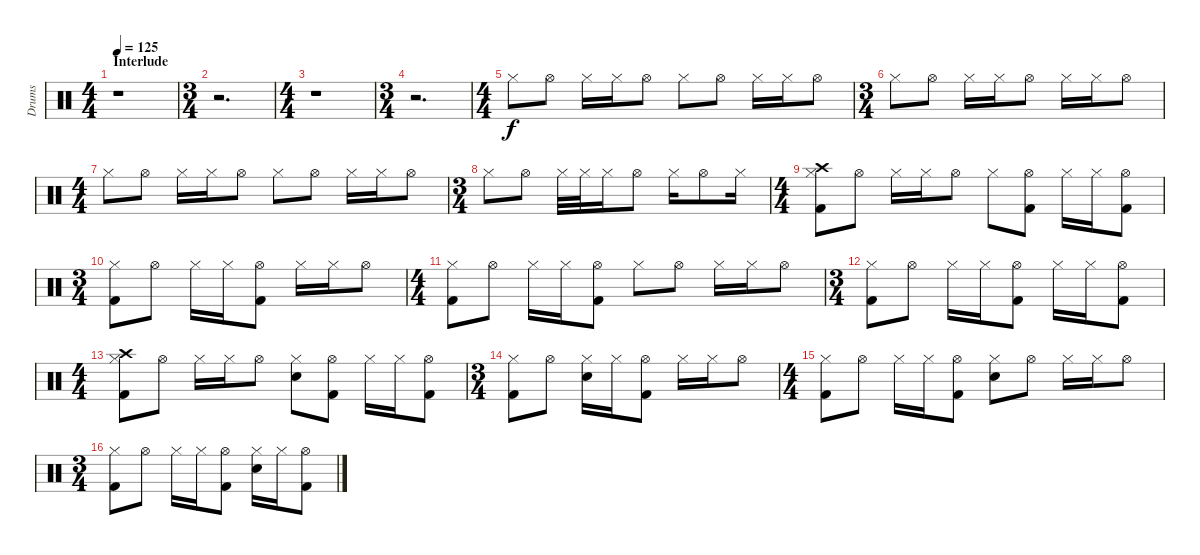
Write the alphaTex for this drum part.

\track ("Drums" "Drums") {instrument percussion}
\staff {score}
\articulation defaults
\ts (4 4)
\section ("" "Interlude")
\tempo 125
\clef neutral
\ks c
r.1{dy f} |
\ts (3 4)
r.2{d} |
\ts (4 4)
r.1 |
\ts (3 4)
r.2{d} |
\ts (4 4)
"Hi-Hat (closed)".8 "Hi-Hat (open)".8 "Hi-Hat (closed)".16 "Hi-Hat (closed)".16 "Hi-Hat (open)".8 "Hi-Hat (closed)".8 "Hi-Hat (open)".8 "Hi-Hat (closed)".16 "Hi-Hat (closed)".16 "Hi-Hat (open)".8 |
\ts (3 4)
"Hi-Hat (closed)".8 "Hi-Hat (open)".8 "Hi-Hat (closed)".16 "Hi-Hat (closed)".16 "Hi-Hat (open)".8 "Hi-Hat (closed)".16 "Hi-Hat (closed)".16 "Hi-Hat (open)".8 |
\ts (4 4)
"Hi-Hat (closed)".8 "Hi-Hat (open)".8 "Hi-Hat (closed)".16 "Hi-Hat (closed)".16 "Hi-Hat (open)".8 "Hi-Hat (closed)".8 "Hi-Hat (open)".8 "Hi-Hat (closed)".16 "Hi-Hat (closed)".16 "Hi-Hat (open)".8 |
\ts (3 4)
"Hi-Hat (closed)".8 "Hi-Hat (open)".8 "Hi-Hat (closed)".32 "Hi-Hat (closed)".32 "Hi-Hat (closed)".16 "Hi-Hat (open)".8 "Hi-Hat (closed)".16 "Hi-Hat (open)".8 "Hi-Hat (closed)".16 |
\ts (4 4)
("Kick (hit) 2" "Crash high (hit)" "Hi-Hat (closed)").8 "Hi-Hat (open)".8 "Hi-Hat (closed)".16 "Hi-Hat (closed)".16 "Hi-Hat (open)".8 "Hi-Hat (closed)".8 ("Kick (hit) 2" "Hi-Hat (open)").8 "Hi-Hat (closed)".16 "Hi-Hat (closed)".16 ("Kick (hit) 2" "Hi-Hat (open)").8 |
\ts (3 4)
("Kick (hit) 2" "Hi-Hat (closed)").8 "Hi-Hat (open)".8 "Hi-Hat (closed)".16 "Hi-Hat (closed)".16 ("Kick (hit) 2" "Hi-Hat (open)").8 "Hi-Hat (closed)".16 "Hi-Hat (closed)".16 "Hi-Hat (open)".8 |
\ts (4 4)
("Kick (hit) 2" "Hi-Hat (closed)").8 "Hi-Hat (open)".8 "Hi-Hat (closed)".16 "Hi-Hat (closed)".16 ("Kick (hit) 2" "Hi-Hat (open)").8 "Hi-Hat (closed)".8 "Hi-Hat (open)".8 "Hi-Hat (closed)".16 "Hi-Hat (closed)".16 "Hi-Hat (open)".8 |
\ts (3 4)
("Kick (hit) 2" "Hi-Hat (closed)").8 "Hi-Hat (open)".8 "Hi-Hat (closed)".16 "Hi-Hat (closed)".16 ("Kick (hit) 2" "Hi-Hat (open)").8 "Hi-Hat (closed)".16 "Hi-Hat (closed)".16 ("Kick (hit) 2" "Hi-Hat (open)").8 |
\ts (4 4)
("Kick (hit) 2" "Crash high (hit)" "Hi-Hat (closed)").8 "Hi-Hat (open)".8 "Hi-Hat (closed)".16 "Hi-Hat (closed)".16 "Hi-Hat (open)".8 ("Hi-Hat (closed)" "Electric Snare (hit)").8 ("Kick (hit) 2" "Hi-Hat (open)").8 "Hi-Hat (closed)".16 "Hi-Hat (closed)".16 ("Kick (hit) 2" "Hi-Hat (open)").8 |
\ts (3 4)
("Kick (hit) 2" "Hi-Hat (closed)").8 "Hi-Hat (open)".8 ("Hi-Hat (closed)" "Electric Snare (hit)").16 "Hi-Hat (closed)".16 ("Kick (hit) 2" "Hi-Hat (open)").8 "Hi-Hat (closed)".16 "Hi-Hat (closed)".16 "Hi-Hat (open)".8 |
\ts (4 4)
("Kick (hit) 2" "Hi-Hat (closed)").8 "Hi-Hat (open)".8 "Hi-Hat (closed)".16 "Hi-Hat (closed)".16 ("Kick (hit) 2" "Hi-Hat (open)").8 ("Hi-Hat (closed)" "Electric Snare (hit)").8 "Hi-Hat (open)".8 "Hi-Hat (closed)".16 "Hi-Hat (closed)".16 "Hi-Hat (open)".8 |
\ts (3 4)
("Kick (hit) 2" "Hi-Hat (closed)").8 "Hi-Hat (open)".8 "Hi-Hat (closed)".16 "Hi-Hat (closed)".16 ("Kick (hit) 2" "Hi-Hat (open)").8 ("Hi-Hat (closed)" "Electric Snare (hit)").16 "Hi-Hat (closed)".16 ("Kick (hit) 2" "Hi-Hat (open)").8
